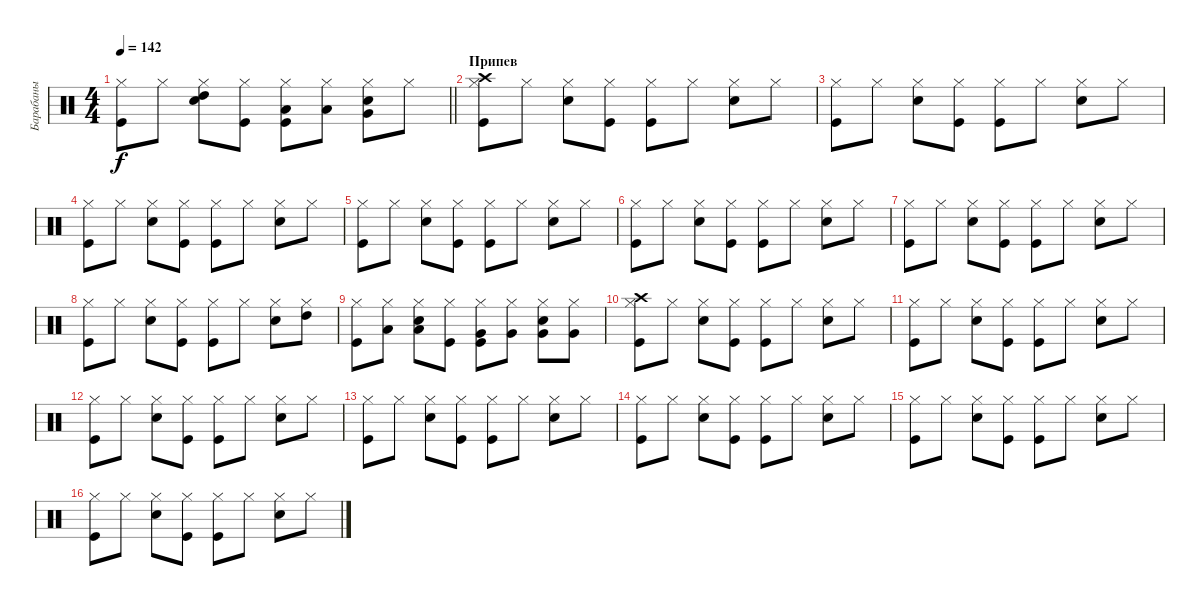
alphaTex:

\track ("Барабаны" "Барабаны") {instrument percussion}
\staff {score}
\articulation defaults
\ts (4 4)
\tempo 142
\clef neutral
\barLineRight lightlight
\ks c
("Kick (hit)" "Hi-Hat (closed)").8{dy f} "Hi-Hat (closed)".8 ("Snare (hit) 2" "Hi-Hat (closed)" "High Tom (hit)").8 ("Kick (hit)" "Hi-Hat (closed)").8 ("Kick (hit)" "Hi-Hat (closed)" "Low Tom (hit)").8 ("Hi-Hat (closed)" "Low Tom (hit)").8 ("Snare (hit) 2" "Hi-Hat (closed)" "Very Low Tom (hit)").8 "Hi-Hat (closed)".8 |
\section ("" "Припев")
("Kick (hit)" "Hi-Hat (closed)" "Crash high (hit)").8 "Hi-Hat (closed)".8 ("Snare (hit) 2" "Hi-Hat (closed)").8 ("Kick (hit)" "Hi-Hat (closed)").8 ("Kick (hit)" "Hi-Hat (closed)").8 "Hi-Hat (closed)".8 ("Snare (hit) 2" "Hi-Hat (closed)").8 "Hi-Hat (closed)".8 |
("Kick (hit)" "Hi-Hat (closed)").8 "Hi-Hat (closed)".8 ("Snare (hit) 2" "Hi-Hat (closed)").8 ("Kick (hit)" "Hi-Hat (closed)").8 ("Kick (hit)" "Hi-Hat (closed)").8 "Hi-Hat (closed)".8 ("Snare (hit) 2" "Hi-Hat (closed)").8 "Hi-Hat (closed)".8 |
("Kick (hit)" "Hi-Hat (closed)").8 "Hi-Hat (closed)".8 ("Snare (hit) 2" "Hi-Hat (closed)").8 ("Kick (hit)" "Hi-Hat (closed)").8 ("Kick (hit)" "Hi-Hat (closed)").8 "Hi-Hat (closed)".8 ("Snare (hit) 2" "Hi-Hat (closed)").8 "Hi-Hat (closed)".8 |
("Kick (hit)" "Hi-Hat (closed)").8 "Hi-Hat (closed)".8 ("Snare (hit) 2" "Hi-Hat (closed)").8 ("Kick (hit)" "Hi-Hat (closed)").8 ("Kick (hit)" "Hi-Hat (closed)").8 "Hi-Hat (closed)".8 ("Snare (hit) 2" "Hi-Hat (closed)").8 "Hi-Hat (closed)".8 |
("Kick (hit)" "Hi-Hat (closed)").8 "Hi-Hat (closed)".8 ("Snare (hit) 2" "Hi-Hat (closed)").8 ("Kick (hit)" "Hi-Hat (closed)").8 ("Kick (hit)" "Hi-Hat (closed)").8 "Hi-Hat (closed)".8 ("Snare (hit) 2" "Hi-Hat (closed)").8 "Hi-Hat (closed)".8 |
("Kick (hit)" "Hi-Hat (closed)").8 "Hi-Hat (closed)".8 ("Snare (hit) 2" "Hi-Hat (closed)").8 ("Kick (hit)" "Hi-Hat (closed)").8 ("Kick (hit)" "Hi-Hat (closed)").8 "Hi-Hat (closed)".8 ("Snare (hit) 2" "Hi-Hat (closed)").8 "Hi-Hat (closed)".8 |
("Kick (hit)" "Hi-Hat (closed)").8 "Hi-Hat (closed)".8 ("Snare (hit) 2" "Hi-Hat (closed)").8 ("Kick (hit)" "Hi-Hat (closed)").8 ("Kick (hit)" "Hi-Hat (closed)").8 "Hi-Hat (closed)".8 ("Snare (hit) 2" "Hi-Hat (closed)").8 ("Hi-Hat (closed)" "High Tom (hit)").8 |
("Kick (hit)" "Hi-Hat (closed)").8 ("Hi-Hat (closed)" "Low Floor Tom (hit)").8 ("Snare (hit) 2" "Hi-Hat (closed)" "Low Floor Tom (hit)").8 ("Kick (hit)" "Hi-Hat (closed)").8 ("Kick (hit)" "Hi-Hat (closed)" "Very Low Tom (hit)").8 ("Hi-Hat (closed)" "Very Low Tom (hit)").8 ("Snare (hit) 2" "Hi-Hat (closed)" "Very Low Tom (hit)").8 ("Hi-Hat (closed)" "Very Low Tom (hit)").8 |
("Kick (hit)" "Hi-Hat (closed)" "Crash high (hit)").8 "Hi-Hat (closed)".8 ("Snare (hit) 2" "Hi-Hat (closed)").8 ("Kick (hit)" "Hi-Hat (closed)").8 ("Kick (hit)" "Hi-Hat (closed)").8 "Hi-Hat (closed)".8 ("Snare (hit) 2" "Hi-Hat (closed)").8 "Hi-Hat (closed)".8 |
("Kick (hit)" "Hi-Hat (closed)").8 "Hi-Hat (closed)".8 ("Snare (hit) 2" "Hi-Hat (closed)").8 ("Kick (hit)" "Hi-Hat (closed)").8 ("Kick (hit)" "Hi-Hat (closed)").8 "Hi-Hat (closed)".8 ("Snare (hit) 2" "Hi-Hat (closed)").8 "Hi-Hat (closed)".8 |
("Kick (hit)" "Hi-Hat (closed)").8 "Hi-Hat (closed)".8 ("Snare (hit) 2" "Hi-Hat (closed)").8 ("Kick (hit)" "Hi-Hat (closed)").8 ("Kick (hit)" "Hi-Hat (closed)").8 "Hi-Hat (closed)".8 ("Snare (hit) 2" "Hi-Hat (closed)").8 "Hi-Hat (closed)".8 |
("Kick (hit)" "Hi-Hat (closed)").8 "Hi-Hat (closed)".8 ("Snare (hit) 2" "Hi-Hat (closed)").8 ("Kick (hit)" "Hi-Hat (closed)").8 ("Kick (hit)" "Hi-Hat (closed)").8 "Hi-Hat (closed)".8 ("Snare (hit) 2" "Hi-Hat (closed)").8 "Hi-Hat (closed)".8 |
("Kick (hit)" "Hi-Hat (closed)").8 "Hi-Hat (closed)".8 ("Snare (hit) 2" "Hi-Hat (closed)").8 ("Kick (hit)" "Hi-Hat (closed)").8 ("Kick (hit)" "Hi-Hat (closed)").8 "Hi-Hat (closed)".8 ("Snare (hit) 2" "Hi-Hat (closed)").8 "Hi-Hat (closed)".8 |
("Kick (hit)" "Hi-Hat (closed)").8 "Hi-Hat (closed)".8 ("Snare (hit) 2" "Hi-Hat (closed)").8 ("Kick (hit)" "Hi-Hat (closed)").8 ("Kick (hit)" "Hi-Hat (closed)").8 "Hi-Hat (closed)".8 ("Snare (hit) 2" "Hi-Hat (closed)").8 "Hi-Hat (closed)".8 |
("Kick (hit)" "Hi-Hat (closed)").8 "Hi-Hat (closed)".8 ("Snare (hit) 2" "Hi-Hat (closed)").8 ("Kick (hit)" "Hi-Hat (closed)").8 ("Kick (hit)" "Hi-Hat (closed)").8 "Hi-Hat (closed)".8 ("Snare (hit) 2" "Hi-Hat (closed)").8 "Hi-Hat (closed)".8
